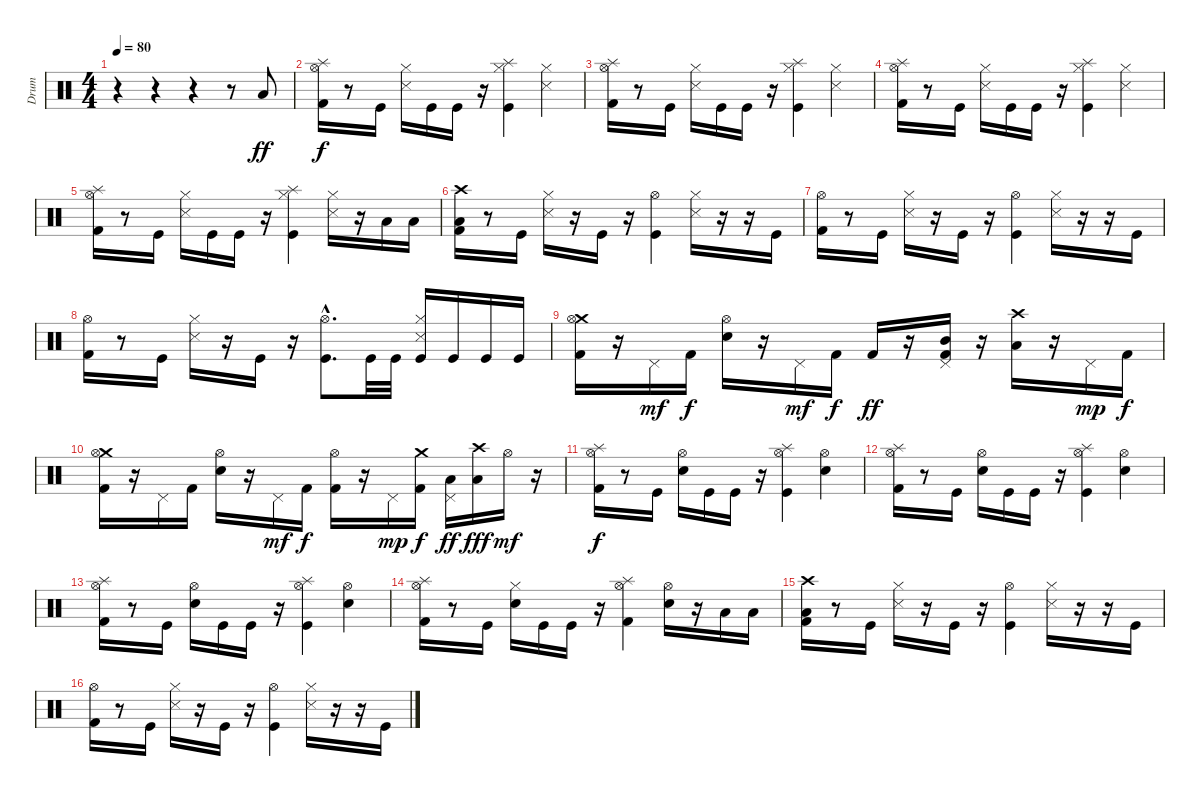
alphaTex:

\track ("Drum" "Drum") {instrument percussion}
\staff {score}
\articulation defaults
\ts (4 4)
\tempo 80
\clef neutral
\ks c
r.4{dy ff} r.4 r.4 r.8 "Low Floor Tom (hit)".8 |
("Splash (hit)" "Hi-Hat (open)" "Kick (hit) 2").16{dy f} r.8 "Kick (hit)".16 ("Hi-Hat (closed)" "Snare (side stick) 3").16 "Kick (hit)".16 "Kick (hit)".16 r.16 ("Splash (hit)" "Hi-Hat (closed)" "Kick (hit)").4 ("Hi-Hat (closed)" "Snare (side stick) 3").4 |
("Splash (hit)" "Hi-Hat (open)" "Kick (hit) 2").16 r.8 "Kick (hit)".16 ("Hi-Hat (closed)" "Snare (side stick) 3").16 "Kick (hit)".16 "Kick (hit)".16 r.16 ("Splash (hit)" "Hi-Hat (closed)" "Kick (hit)").4 ("Hi-Hat (closed)" "Snare (side stick) 3").4 |
("Splash (hit)" "Hi-Hat (open)" "Kick (hit) 2").16 r.8 "Kick (hit)".16 ("Hi-Hat (closed)" "Snare (side stick) 3").16 "Kick (hit)".16 "Kick (hit)".16 r.16 ("Splash (hit)" "Hi-Hat (closed)" "Kick (hit)").4 ("Hi-Hat (closed)" "Snare (side stick) 3").4 |
("Splash (hit)" "Hi-Hat (open)" "Kick (hit) 2").16 r.8 "Kick (hit)".16 ("Hi-Hat (closed)" "Snare (side stick) 3").16 "Kick (hit)".16 "Kick (hit)".16 r.16 ("Splash (hit)" "Hi-Hat (closed)" "Kick (hit)").4 ("Hi-Hat (closed)" "Snare (side stick) 3").16 r.16 "Low Floor Tom (hit)".16 "Low Floor Tom (hit)".16 |
("Crash high (hit)" "Low Floor Tom (hit)" "Kick (hit) 2").16 r.8 "Kick (hit)".16 ("Hi-Hat (closed)" "Snare (side stick) 3").16 r.16 "Kick (hit)".16 r.16 ("Hi-Hat (open)" "Kick (hit)").4 ("Hi-Hat (closed)" "Snare (side stick) 3").16 r.16 r.16 "Kick (hit)".16 |
("Hi-Hat (open)" "Kick (hit) 2").16 r.8 "Kick (hit)".16 ("Hi-Hat (closed)" "Snare (side stick) 3").16 r.16 "Kick (hit)".16 r.16 ("Hi-Hat (open)" "Kick (hit)").4 ("Hi-Hat (closed)" "Snare (side stick) 3").16 r.16 r.16 "Kick (hit)".16 |
("Hi-Hat (open)" "Kick (hit) 2").16 r.8 "Kick (hit)".16 ("Hi-Hat (closed)" "Snare (side stick) 3").16 r.16 "Kick (hit)".16 r.16 ("Hi-Hat (open)"{hac} "Kick (hit)"{hac}).8{d} "Kick (hit)".32 "Kick (hit)".32 ("Hi-Hat (closed)" "Snare (side stick) 3" "Kick (hit)").16 "Kick (hit)".16 "Kick (hit)".16 "Kick (hit)".16 |
("Crash medium (hit)" "Hi-Hat (open)" "Kick (hit) 2").16 r.16 "Pedal Hi-Hat (hit)".16{dy mf} "Kick (hit) 2".16{dy f} ("Hi-Hat (open)" "Snare (hit) 2").16 r.16 "Pedal Hi-Hat (hit)".16{dy mf} "Kick (hit) 2".16{dy f} "Kick (hit) 2".16{dy ff} r.16 ("Pedal Hi-Hat (hit)" "Mid Tom (hit)" "Kick (hit) 2").16 r.16 ("Crash high (hit)" "Low Tom (hit)").16 r.16 "Pedal Hi-Hat (hit)".16{dy mp} "Kick (hit) 2".16{dy f} |
("Crash medium (hit)" "Hi-Hat (open)" "Kick (hit) 2").16 r.16 "Pedal Hi-Hat (hit)".16 "Kick (hit) 2".16 ("Hi-Hat (open)" "Snare (hit) 2").16 r.16 "Pedal Hi-Hat (hit)".16{dy mf} "Kick (hit) 2".16{dy f} ("Hi-Hat (open)" "Kick (hit) 2").16 r.16 "Pedal Hi-Hat (hit)".16{dy mp} ("Crash medium (hit)" "Kick (hit) 2").16{dy f} ("Low Tom (hit)" "Pedal Hi-Hat (hit)").16{dy ff} ("Crash high (hit)" "Low Tom (hit)").16{dy fff} "Hi-Hat (open)".16{dy mf} r.16 |
("Splash (hit)" "Hi-Hat (open)" "Kick (hit) 2").16{dy f} r.8 "Kick (hit)".16 ("Hi-Hat (open)" "Snare (hit) 2").16 "Kick (hit)".16 "Kick (hit)".16 r.16 ("Splash (hit)" "Hi-Hat (open)" "Kick (hit)").4 ("Hi-Hat (open)" "Snare (hit) 2").4 |
("Splash (hit)" "Hi-Hat (open)" "Kick (hit) 2").16 r.8 "Kick (hit)".16 ("Hi-Hat (open)" "Snare (hit) 2").16 "Kick (hit)".16 "Kick (hit)".16 r.16 ("Splash (hit)" "Hi-Hat (open)" "Kick (hit)").4 ("Hi-Hat (open)" "Snare (hit) 2").4 |
("Splash (hit)" "Hi-Hat (open)" "Kick (hit) 2").16 r.8 "Kick (hit)".16 ("Hi-Hat (open)" "Snare (hit) 2").16 "Kick (hit)".16 "Kick (hit)".16 r.16 ("Splash (hit)" "Hi-Hat (open)" "Kick (hit)").4 ("Hi-Hat (open)" "Snare (hit) 2").4 |
("Splash (hit)" "Hi-Hat (open)" "Kick (hit) 2").16 r.8 "Kick (hit)".16 ("Hi-Hat (closed)" "Snare (hit) 2").16 "Kick (hit)".16 "Kick (hit)".16 r.16 ("Splash (hit)" "Hi-Hat (open)" "Kick (hit) 2").4 ("Hi-Hat (open)" "Snare (hit) 2").16 r.16 "Low Floor Tom (hit)".16 "Low Floor Tom (hit)".16 |
("Crash high (hit)" "Low Floor Tom (hit)" "Kick (hit) 2").16 r.8 "Kick (hit)".16 ("Hi-Hat (closed)" "Snare (side stick) 3").16 r.16 "Kick (hit)".16 r.16 ("Hi-Hat (open)" "Kick (hit)").4 ("Hi-Hat (closed)" "Snare (side stick) 3").16 r.16 r.16 "Kick (hit)".16 |
("Hi-Hat (open)" "Kick (hit) 2").16 r.8 "Kick (hit)".16 ("Hi-Hat (closed)" "Snare (side stick) 3").16 r.16 "Kick (hit)".16 r.16 ("Hi-Hat (open)" "Kick (hit)").4 ("Hi-Hat (closed)" "Snare (side stick) 3").16 r.16 r.16 "Kick (hit)".16
